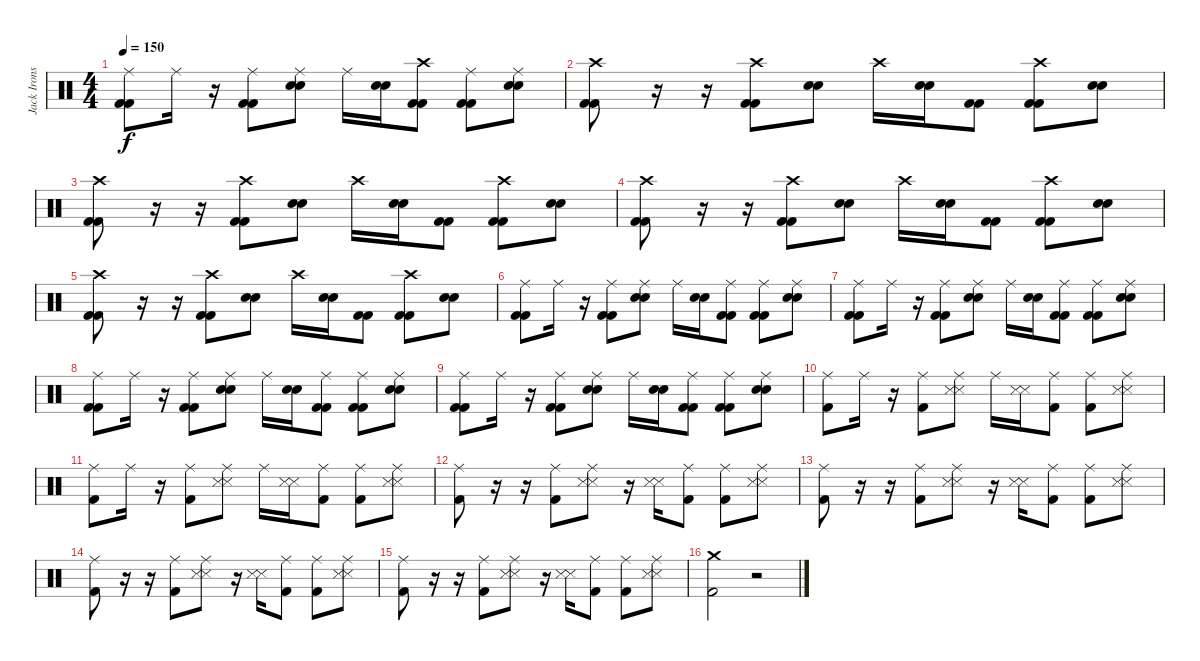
\track ("Jack Irons" "Jack Irons") {instrument percussion}
\staff {score}
\articulation defaults
\ts (4 4)
\tempo 150
\clef neutral
\ks c
("Ride (middle)" "Kick (hit) 2" "Kick (hit) 2").8{dy f} "Ride (middle)".16 r.16 ("Ride (middle)" "Kick (hit) 2" "Kick (hit) 2").8 ("Ride (middle)" "Electric Snare (hit)" "Electric Snare (hit)").8 "Ride (middle)".16 ("Electric Snare (hit)" "Electric Snare (hit)").16 ("Crash high (hit)" "Kick (hit) 2" "Kick (hit) 2").8 ("Ride (middle)" "Kick (hit) 2" "Kick (hit) 2").8 ("Ride (middle)" "Electric Snare (hit)" "Electric Snare (hit)").8 |
("Crash high (hit)" "Kick (hit) 2" "Kick (hit) 2").8 r.16 r.16 ("Crash high (hit)" "Kick (hit) 2" "Kick (hit) 2").8 ("Electric Snare (hit)" "Electric Snare (hit)").8 "Crash high (hit)".16 ("Electric Snare (hit)" "Electric Snare (hit)").16 ("Kick (hit) 2" "Kick (hit) 2").8 ("Crash high (hit)" "Kick (hit) 2" "Kick (hit) 2").8 ("Electric Snare (hit)" "Electric Snare (hit)").8 |
("Crash high (hit)" "Kick (hit) 2" "Kick (hit) 2").8 r.16 r.16 ("Crash high (hit)" "Kick (hit) 2" "Kick (hit) 2").8 ("Electric Snare (hit)" "Electric Snare (hit)").8 "Crash high (hit)".16 ("Electric Snare (hit)" "Electric Snare (hit)").16 ("Kick (hit) 2" "Kick (hit) 2").8 ("Crash high (hit)" "Kick (hit) 2" "Kick (hit) 2").8 ("Electric Snare (hit)" "Electric Snare (hit)").8 |
("Crash high (hit)" "Kick (hit) 2" "Kick (hit) 2").8 r.16 r.16 ("Crash high (hit)" "Kick (hit) 2" "Kick (hit) 2").8 ("Electric Snare (hit)" "Electric Snare (hit)").8 "Crash high (hit)".16 ("Electric Snare (hit)" "Electric Snare (hit)").16 ("Kick (hit) 2" "Kick (hit) 2").8 ("Crash high (hit)" "Kick (hit) 2" "Kick (hit) 2").8 ("Electric Snare (hit)" "Electric Snare (hit)").8 |
("Crash high (hit)" "Kick (hit) 2" "Kick (hit) 2").8 r.16 r.16 ("Crash high (hit)" "Kick (hit) 2" "Kick (hit) 2").8 ("Electric Snare (hit)" "Electric Snare (hit)").8 "Crash high (hit)".16 ("Electric Snare (hit)" "Electric Snare (hit)").16 ("Kick (hit) 2" "Kick (hit) 2").8 ("Crash high (hit)" "Kick (hit) 2" "Kick (hit) 2").8 ("Electric Snare (hit)" "Electric Snare (hit)").8 |
("Ride (middle)" "Kick (hit) 2" "Kick (hit) 2").8 "Ride (middle)".16 r.16 ("Ride (middle)" "Kick (hit) 2" "Kick (hit) 2").8 ("Ride (middle)" "Electric Snare (hit)" "Electric Snare (hit)").8 "Ride (middle)".16 ("Electric Snare (hit)" "Electric Snare (hit)").16 ("Ride (middle)" "Kick (hit) 2" "Kick (hit) 2").8 ("Ride (middle)" "Kick (hit) 2" "Kick (hit) 2").8 ("Ride (middle)" "Electric Snare (hit)" "Electric Snare (hit)").8 |
("Ride (middle)" "Kick (hit) 2" "Kick (hit) 2").8 "Ride (middle)".16 r.16 ("Ride (middle)" "Kick (hit) 2" "Kick (hit) 2").8 ("Ride (middle)" "Electric Snare (hit)" "Electric Snare (hit)").8 "Ride (middle)".16 ("Electric Snare (hit)" "Electric Snare (hit)").16 ("Ride (middle)" "Kick (hit) 2" "Kick (hit) 2").8 ("Ride (middle)" "Kick (hit) 2" "Kick (hit) 2").8 ("Ride (middle)" "Electric Snare (hit)" "Electric Snare (hit)").8 |
("Ride (middle)" "Kick (hit) 2" "Kick (hit) 2").8 "Ride (middle)".16 r.16 ("Ride (middle)" "Kick (hit) 2" "Kick (hit) 2").8 ("Ride (middle)" "Electric Snare (hit)" "Electric Snare (hit)").8 "Ride (middle)".16 ("Electric Snare (hit)" "Electric Snare (hit)").16 ("Ride (middle)" "Kick (hit) 2" "Kick (hit) 2").8 ("Ride (middle)" "Kick (hit) 2" "Kick (hit) 2").8 ("Ride (middle)" "Electric Snare (hit)" "Electric Snare (hit)").8 |
("Ride (middle)" "Kick (hit) 2" "Kick (hit) 2").8 "Ride (middle)".16 r.16 ("Ride (middle)" "Kick (hit) 2" "Kick (hit) 2").8 ("Ride (middle)" "Electric Snare (hit)" "Electric Snare (hit)").8 "Ride (middle)".16 ("Electric Snare (hit)" "Electric Snare (hit)").16 ("Ride (middle)" "Kick (hit) 2" "Kick (hit) 2").8 ("Ride (middle)" "Kick (hit) 2" "Kick (hit) 2").8 ("Ride (middle)" "Electric Snare (hit)" "Electric Snare (hit)").8 |
("Ride (middle)" "Kick (hit) 2").8 "Ride (middle)".16 r.16 ("Ride (middle)" "Kick (hit) 2").8 ("Ride (middle)" "Snare (side stick) 3" "Snare (side stick) 3").8 "Ride (middle)".16 ("Snare (side stick) 3" "Snare (side stick) 3").16 ("Ride (middle)" "Kick (hit) 2").8 ("Ride (middle)" "Kick (hit) 2").8 ("Ride (middle)" "Snare (side stick) 3" "Snare (side stick) 3").8 |
("Ride (middle)" "Kick (hit) 2").8 "Ride (middle)".16 r.16 ("Ride (middle)" "Kick (hit) 2").8 ("Ride (middle)" "Snare (side stick) 3" "Snare (side stick) 3").8 "Ride (middle)".16 ("Snare (side stick) 3" "Snare (side stick) 3").16 ("Ride (middle)" "Kick (hit) 2").8 ("Ride (middle)" "Kick (hit) 2").8 ("Ride (middle)" "Snare (side stick) 3" "Snare (side stick) 3").8 |
("Ride (middle)" "Kick (hit) 2").8 r.16 r.16 ("Ride (middle)" "Kick (hit) 2").8 ("Ride (middle)" "Snare (side stick) 3" "Snare (side stick) 3").8 r.16 ("Snare (side stick) 3" "Snare (side stick) 3").16 ("Ride (middle)" "Kick (hit) 2").8 ("Ride (middle)" "Kick (hit) 2").8 ("Ride (middle)" "Snare (side stick) 3" "Snare (side stick) 3").8 |
("Ride (middle)" "Kick (hit) 2").8 r.16 r.16 ("Ride (middle)" "Kick (hit) 2").8 ("Ride (middle)" "Snare (side stick) 3" "Snare (side stick) 3").8 r.16 ("Snare (side stick) 3" "Snare (side stick) 3").16 ("Ride (middle)" "Kick (hit) 2").8 ("Ride (middle)" "Kick (hit) 2").8 ("Ride (middle)" "Snare (side stick) 3" "Snare (side stick) 3").8 |
("Ride (middle)" "Kick (hit) 2").8 r.16 r.16 ("Ride (middle)" "Kick (hit) 2").8 ("Ride (middle)" "Snare (side stick) 3" "Snare (side stick) 3").8 r.16 ("Snare (side stick) 3" "Snare (side stick) 3").16 ("Ride (middle)" "Kick (hit) 2").8 ("Ride (middle)" "Kick (hit) 2").8 ("Ride (middle)" "Snare (side stick) 3" "Snare (side stick) 3").8 |
("Ride (middle)" "Kick (hit) 2").8 r.16 r.16 ("Ride (middle)" "Kick (hit) 2").8 ("Ride (middle)" "Snare (side stick) 3" "Snare (side stick) 3").8 r.16 ("Snare (side stick) 3" "Snare (side stick) 3").16 ("Ride (middle)" "Kick (hit) 2").8 ("Ride (middle)" "Kick (hit) 2").8 ("Ride (middle)" "Snare (side stick) 3" "Snare (side stick) 3").8 |
("Crash medium (hit)" "Kick (hit) 2").2 r.2
